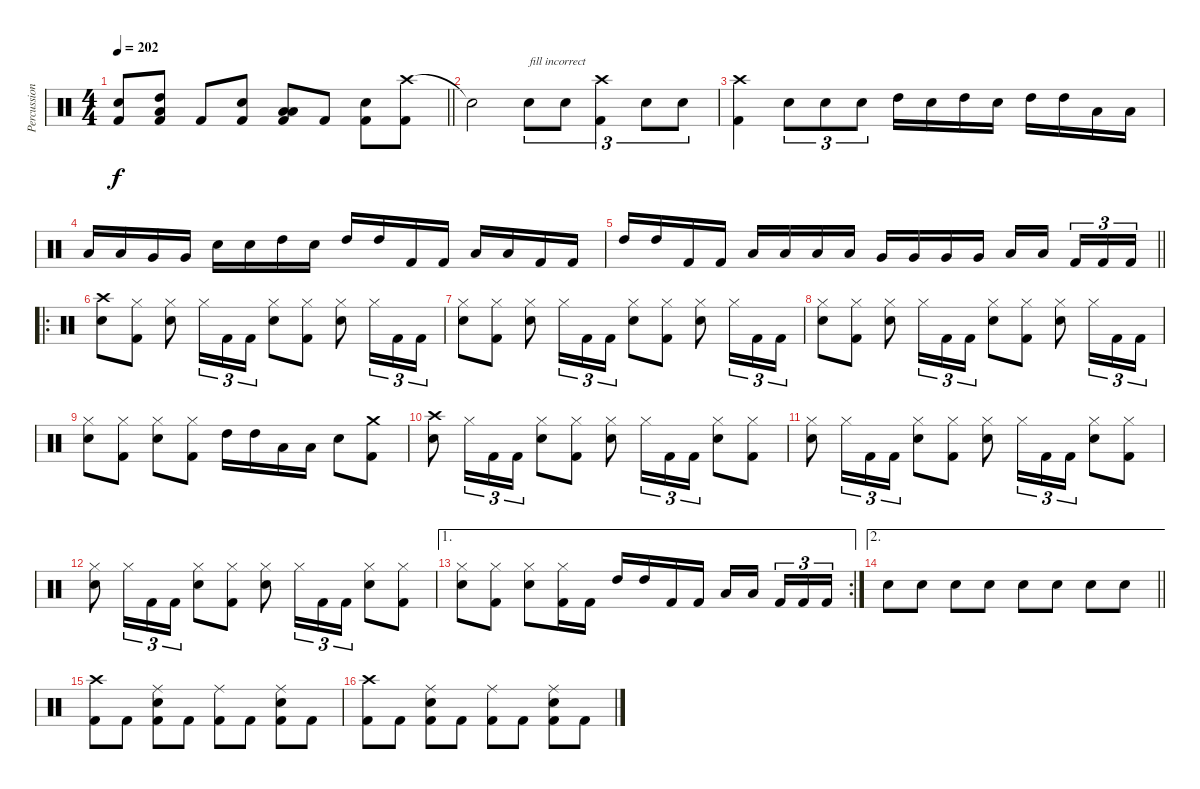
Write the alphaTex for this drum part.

\track ("Percussion" "Percussion") {instrument percussion}
\staff {score}
\articulation defaults
\ts (4 4)
\tempo 202
\clef neutral
\barLineRight lightlight
\ks c
("Electric Snare (hit)" "Kick (hit) 2").8{dy f} ("High Tom (hit)" "Low Floor Tom (hit)" "Kick (hit) 2").8 "Kick (hit) 2".8 ("Electric Snare (hit)" "Kick (hit) 2").8 ("Low Tom (hit)" "Low Floor Tom (hit)" "Kick (hit) 2").8 "Kick (hit) 2".8 ("Electric Snare (hit)" "Kick (hit) 2").8 ("Crash high (hit)" "Kick (hit) 2").8 |
"Snare (hit)"{t}.2 "Electric Snare (hit)".8{tu (3 2) txt "fill incorrect"} "Electric Snare (hit)".8{tu (3 2)} ("Crash high (hit)" "Kick (hit) 2").4{tu (3 2)} "Electric Snare (hit)".8{tu (3 2)} "Electric Snare (hit)".8{tu (3 2)} |
("Crash high (hit)" "Kick (hit) 2").4 "Electric Snare (hit)".8{tu (3 2)} "Electric Snare (hit)".8{tu (3 2)} "Electric Snare (hit)".8{tu (3 2)} "High Tom (hit)".16 "Electric Snare (hit)".16 "High Tom (hit)".16 "Electric Snare (hit)".16 "High Tom (hit)".16 "High Tom (hit)".16 "Low Tom (hit)".16 "Low Tom (hit)".16 |
"Low Tom (hit)".16 "Low Tom (hit)".16 "Very Low Tom (hit)".16 "Very Low Tom (hit)".16 "Electric Snare (hit)".16 "Electric Snare (hit)".16 "High Tom (hit)".16 "Electric Snare (hit)".16 "High Tom (hit)".16 "High Tom (hit)".16 "Kick (hit) 2".16 "Kick (hit) 2".16 "Low Tom (hit)".16 "Low Tom (hit)".16 "Kick (hit) 2".16 "Kick (hit) 2".16 |
\barLineRight lightlight "High Tom (hit)".16 "High Tom (hit)".16 "Kick (hit) 2".16 "Kick (hit) 2".16 "Low Tom (hit)".16 "Low Tom (hit)".16 "Low Tom (hit)".16 "Low Tom (hit)".16 "Very Low Tom (hit)".16 "Very Low Tom (hit)".16 "Very Low Tom (hit)".16 "Very Low Tom (hit)".16 "Low Floor Tom (hit)".16 "Low Floor Tom (hit)".16{beam splitsecondary} "Kick (hit) 2".16{tu (3 2)} "Kick (hit) 2".16{tu (3 2)} "Kick (hit) 2".16{tu (3 2)}
|
\ro
("Crash high (hit)" "Electric Snare (hit)").8 ("Hi-Hat (closed)" "Kick (hit) 2").8 ("Hi-Hat (closed)" "Electric Snare (hit)").8 "Hi-Hat (closed)".16{tu (3 2)} "Kick (hit) 2".16{tu (3 2)} "Kick (hit) 2".16{tu (3 2)} ("Hi-Hat (closed)" "Electric Snare (hit)").8 ("Hi-Hat (closed)" "Kick (hit) 2").8 ("Hi-Hat (closed)" "Electric Snare (hit)").8 "Hi-Hat (closed)".16{tu (3 2)} "Kick (hit) 2".16{tu (3 2)} "Kick (hit) 2".16{tu (3 2)} |
("Hi-Hat (closed)" "Electric Snare (hit)").8 ("Hi-Hat (closed)" "Kick (hit) 2").8 ("Hi-Hat (closed)" "Electric Snare (hit)").8 "Hi-Hat (closed)".16{tu (3 2)} "Kick (hit) 2".16{tu (3 2)} "Kick (hit) 2".16{tu (3 2)} ("Hi-Hat (closed)" "Electric Snare (hit)").8 ("Hi-Hat (closed)" "Kick (hit) 2").8 ("Hi-Hat (closed)" "Electric Snare (hit)").8 "Hi-Hat (closed)".16{tu (3 2)} "Kick (hit) 2".16{tu (3 2)} "Kick (hit) 2".16{tu (3 2)} |
("Hi-Hat (closed)" "Electric Snare (hit)").8 ("Hi-Hat (closed)" "Kick (hit) 2").8 ("Hi-Hat (closed)" "Electric Snare (hit)").8 "Hi-Hat (closed)".16{tu (3 2)} "Kick (hit) 2".16{tu (3 2)} "Kick (hit) 2".16{tu (3 2)} ("Hi-Hat (closed)" "Electric Snare (hit)").8 ("Hi-Hat (closed)" "Kick (hit) 2").8 ("Hi-Hat (closed)" "Electric Snare (hit)").8 "Hi-Hat (closed)".16{tu (3 2)} "Kick (hit) 2".16{tu (3 2)} "Kick (hit) 2".16{tu (3 2)} |
("Hi-Hat (closed)" "Electric Snare (hit)").8 ("Hi-Hat (closed)" "Kick (hit) 2").8 ("Hi-Hat (closed)" "Electric Snare (hit)").8 ("Hi-Hat (closed)" "Kick (hit) 2").8 "High Tom (hit)".16 "High Tom (hit)".16 "Low Tom (hit)".16 "Low Tom (hit)".16 "Electric Snare (hit)".8 ("Crash medium (hit)" "Kick (hit) 2").8 |
("Crash high (hit)" "Electric Snare (hit)").8 "Hi-Hat (closed)".16{tu (3 2)} "Kick (hit) 2".16{tu (3 2)} "Kick (hit) 2".16{tu (3 2)} ("Hi-Hat (closed)" "Electric Snare (hit)").8 ("Hi-Hat (closed)" "Kick (hit) 2").8 ("Hi-Hat (closed)" "Electric Snare (hit)").8 "Hi-Hat (closed)".16{tu (3 2)} "Kick (hit) 2".16{tu (3 2)} "Kick (hit) 2".16{tu (3 2)} ("Hi-Hat (closed)" "Electric Snare (hit)").8 ("Hi-Hat (closed)" "Kick (hit) 2").8 |
("Hi-Hat (closed)" "Electric Snare (hit)").8 "Hi-Hat (closed)".16{tu (3 2)} "Kick (hit) 2".16{tu (3 2)} "Kick (hit) 2".16{tu (3 2)} ("Hi-Hat (closed)" "Electric Snare (hit)").8 ("Hi-Hat (closed)" "Kick (hit) 2").8 ("Hi-Hat (closed)" "Electric Snare (hit)").8 "Hi-Hat (closed)".16{tu (3 2)} "Kick (hit) 2".16{tu (3 2)} "Kick (hit) 2".16{tu (3 2)} ("Hi-Hat (closed)" "Electric Snare (hit)").8 ("Hi-Hat (closed)" "Kick (hit) 2").8 |
("Hi-Hat (closed)" "Electric Snare (hit)").8 "Hi-Hat (closed)".16{tu (3 2)} "Kick (hit) 2".16{tu (3 2)} "Kick (hit) 2".16{tu (3 2)} ("Hi-Hat (closed)" "Electric Snare (hit)").8 ("Hi-Hat (closed)" "Kick (hit) 2").8 ("Hi-Hat (closed)" "Electric Snare (hit)").8 "Hi-Hat (closed)".16{tu (3 2)} "Kick (hit) 2".16{tu (3 2)} "Kick (hit) 2".16{tu (3 2)} ("Hi-Hat (closed)" "Electric Snare (hit)").8 ("Hi-Hat (closed)" "Kick (hit) 2").8 |
\ae 1
\rc 2
("Hi-Hat (closed)" "Electric Snare (hit)").8 ("Hi-Hat (closed)" "Kick (hit) 2").8 ("Hi-Hat (closed)" "Electric Snare (hit)").8 ("Hi-Hat (closed)" "Kick (hit) 2").16 "Kick (hit) 2".16 "High Tom (hit)".16 "High Tom (hit)".16 "Kick (hit) 2".16 "Kick (hit) 2".16 "Low Tom (hit)".16 "Low Tom (hit)".16{beam splitsecondary} "Kick (hit) 2".16{tu (3 2)} "Kick (hit) 2".16{tu (3 2)} "Kick (hit) 2".16{tu (3 2)} |
\ae 2
\barLineRight lightlight "Electric Snare (hit)".8 "Electric Snare (hit)".8 "Electric Snare (hit)".8 "Electric Snare (hit)".8 "Electric Snare (hit)".8 "Electric Snare (hit)".8 "Electric Snare (hit)".8 "Electric Snare (hit)".8
|
("Crash high (hit)" "Kick (hit) 2").8 "Kick (hit) 2".8 ("Ride (middle)" "Electric Snare (hit)" "Kick (hit) 2").8 "Kick (hit) 2".8 ("Ride (middle)" "Kick (hit) 2").8 "Kick (hit) 2".8 ("Ride (middle)" "Electric Snare (hit)" "Kick (hit) 2").8 "Kick (hit) 2".8 |
("Crash high (hit)" "Kick (hit) 2").8 "Kick (hit) 2".8 ("Ride (middle)" "Electric Snare (hit)" "Kick (hit) 2").8 "Kick (hit) 2".8 ("Ride (middle)" "Kick (hit) 2").8 "Kick (hit) 2".8 ("Ride (middle)" "Electric Snare (hit)" "Kick (hit) 2").8 "Kick (hit) 2".8
